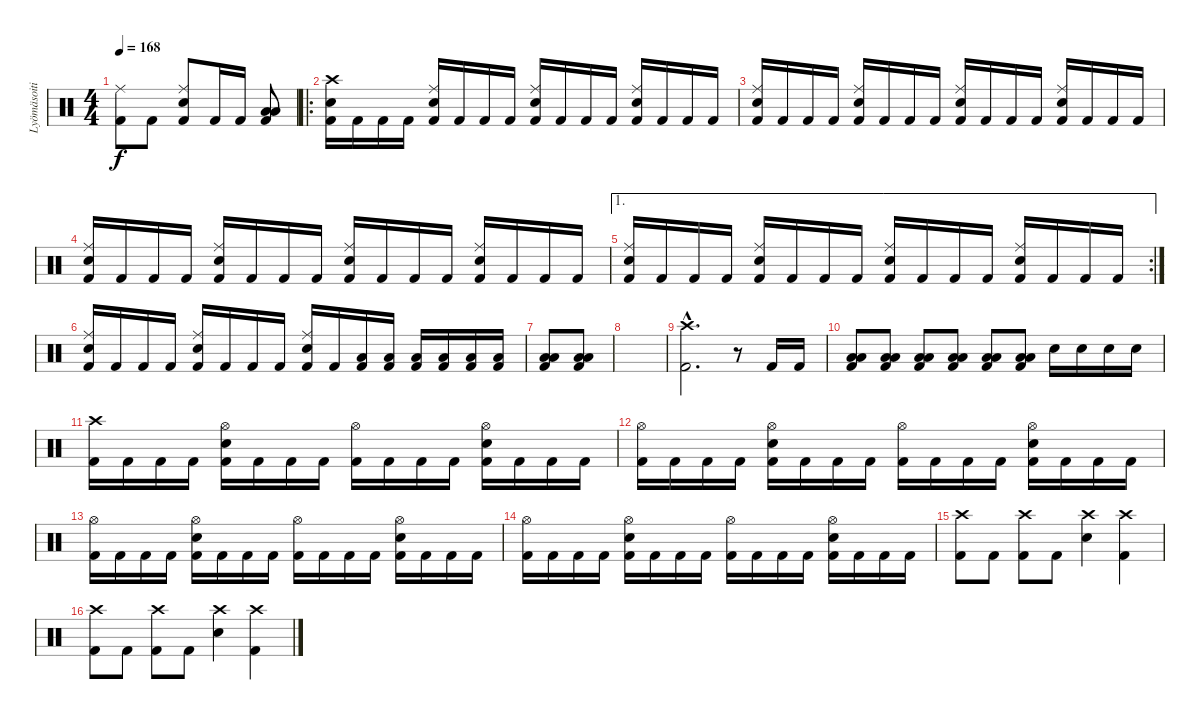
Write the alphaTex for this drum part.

\track ("Lyömäsoitin" "Lyömäsoiti") {instrument percussion}
\staff {score}
\articulation defaults
\ts (4 4)
\tempo 168
\clef neutral
\ks c
("Kick (hit) 2" "Ride (middle)").8{dy f} "Kick (hit) 2".8 ("Kick (hit) 2" "Electric Snare (hit)" "Ride (middle)").8 "Kick (hit) 2".16 "Kick (hit) 2".16 ("Kick (hit) 2" "Low Floor Tom (hit)" "Low Tom (hit)").8 |
\ro
("Kick (hit) 2" "Electric Snare (hit)" "Crash high (hit)").16 "Kick (hit) 2".16 "Kick (hit) 2".16 "Kick (hit) 2".16 ("Kick (hit) 2" "Electric Snare (hit)" "Ride (middle)").16 "Kick (hit) 2".16 "Kick (hit) 2".16 "Kick (hit) 2".16 ("Kick (hit) 2" "Electric Snare (hit)" "Ride (middle)").16 "Kick (hit) 2".16 "Kick (hit) 2".16 "Kick (hit) 2".16 ("Kick (hit) 2" "Electric Snare (hit)" "Ride (middle)").16 "Kick (hit) 2".16 "Kick (hit) 2".16 "Kick (hit) 2".16 |
("Kick (hit) 2" "Electric Snare (hit)" "Ride (middle)").16 "Kick (hit) 2".16 "Kick (hit) 2".16 "Kick (hit) 2".16 ("Kick (hit) 2" "Electric Snare (hit)" "Ride (middle)").16 "Kick (hit) 2".16 "Kick (hit) 2".16 "Kick (hit) 2".16 ("Kick (hit) 2" "Electric Snare (hit)" "Ride (middle)").16 "Kick (hit) 2".16 "Kick (hit) 2".16 "Kick (hit) 2".16 ("Kick (hit) 2" "Electric Snare (hit)" "Ride (middle)").16 "Kick (hit) 2".16 "Kick (hit) 2".16 "Kick (hit) 2".16 |
("Kick (hit) 2" "Electric Snare (hit)" "Ride (middle)").16 "Kick (hit) 2".16 "Kick (hit) 2".16 "Kick (hit) 2".16 ("Kick (hit) 2" "Electric Snare (hit)" "Ride (middle)").16 "Kick (hit) 2".16 "Kick (hit) 2".16 "Kick (hit) 2".16 ("Kick (hit) 2" "Electric Snare (hit)" "Ride (middle)").16 "Kick (hit) 2".16 "Kick (hit) 2".16 "Kick (hit) 2".16 ("Kick (hit) 2" "Electric Snare (hit)" "Ride (middle)").16 "Kick (hit) 2".16 "Kick (hit) 2".16 "Kick (hit) 2".16 |
\ae 1
\rc 2
("Kick (hit) 2" "Electric Snare (hit)" "Ride (middle)").16 "Kick (hit) 2".16 "Kick (hit) 2".16 "Kick (hit) 2".16 ("Kick (hit) 2" "Electric Snare (hit)" "Ride (middle)").16 "Kick (hit) 2".16 "Kick (hit) 2".16 "Kick (hit) 2".16 ("Kick (hit) 2" "Electric Snare (hit)" "Ride (middle)").16 "Kick (hit) 2".16 "Kick (hit) 2".16 "Kick (hit) 2".16 ("Kick (hit) 2" "Electric Snare (hit)" "Ride (middle)").16 "Kick (hit) 2".16 "Kick (hit) 2".16 "Kick (hit) 2".16 |
("Kick (hit) 2" "Electric Snare (hit)" "Ride (middle)").16 "Kick (hit) 2".16 "Kick (hit) 2".16 "Kick (hit) 2".16 ("Kick (hit) 2" "Electric Snare (hit)" "Ride (middle)").16 "Kick (hit) 2".16 "Kick (hit) 2".16 "Kick (hit) 2".16 ("Kick (hit) 2" "Electric Snare (hit)" "Ride (middle)").16 "Kick (hit) 2".16 ("Kick (hit) 2" "Low Tom (hit)").16 ("Kick (hit) 2" "Low Tom (hit)").16 ("Kick (hit) 2" "Low Tom (hit)").16 ("Kick (hit) 2" "Low Tom (hit)").16 ("Kick (hit) 2" "Low Tom (hit)").16 ("Kick (hit) 2" "Low Tom (hit)").16 |
("Kick (hit) 2" "Low Floor Tom (hit)" "Low Tom (hit)").8 ("Kick (hit) 2" "Low Floor Tom (hit)" "Low Tom (hit)").8 |
|
("Kick (hit) 2"{hac} "Crash high (hit)"{hac}).2{d} r.8 "Kick (hit) 2".16 "Kick (hit) 2".16 |
("Kick (hit) 2" "Low Floor Tom (hit)" "Low Tom (hit)").8 ("Kick (hit) 2" "Low Floor Tom (hit)" "Low Tom (hit)").8 ("Kick (hit) 2" "Low Floor Tom (hit)" "Low Tom (hit)").8 ("Kick (hit) 2" "Low Floor Tom (hit)" "Low Tom (hit)").8 ("Kick (hit) 2" "Low Floor Tom (hit)" "Low Tom (hit)").8 ("Kick (hit) 2" "Low Floor Tom (hit)" "Low Tom (hit)").8 "Electric Snare (hit)".16 "Electric Snare (hit)".16 "Electric Snare (hit)".16 "Electric Snare (hit)".16 |
("Kick (hit) 2" "Crash high (hit)").16 "Kick (hit) 2".16 "Kick (hit) 2".16 "Kick (hit) 2".16 ("Kick (hit) 2" "Electric Snare (hit)" "Hi-Hat (open)").16 "Kick (hit) 2".16 "Kick (hit) 2".16 "Kick (hit) 2".16 ("Kick (hit) 2" "Hi-Hat (open)").16 "Kick (hit) 2".16 "Kick (hit) 2".16 "Kick (hit) 2".16 ("Kick (hit) 2" "Electric Snare (hit)" "Hi-Hat (open)").16 "Kick (hit) 2".16 "Kick (hit) 2".16 "Kick (hit) 2".16 |
("Kick (hit) 2" "Hi-Hat (open)").16 "Kick (hit) 2".16 "Kick (hit) 2".16 "Kick (hit) 2".16 ("Kick (hit) 2" "Electric Snare (hit)" "Hi-Hat (open)").16 "Kick (hit) 2".16 "Kick (hit) 2".16 "Kick (hit) 2".16 ("Kick (hit) 2" "Hi-Hat (open)").16 "Kick (hit) 2".16 "Kick (hit) 2".16 "Kick (hit) 2".16 ("Kick (hit) 2" "Electric Snare (hit)" "Hi-Hat (open)").16 "Kick (hit) 2".16 "Kick (hit) 2".16 "Kick (hit) 2".16 |
("Kick (hit) 2" "Hi-Hat (open)").16 "Kick (hit) 2".16 "Kick (hit) 2".16 "Kick (hit) 2".16 ("Kick (hit) 2" "Electric Snare (hit)" "Hi-Hat (open)").16 "Kick (hit) 2".16 "Kick (hit) 2".16 "Kick (hit) 2".16 ("Kick (hit) 2" "Hi-Hat (open)").16 "Kick (hit) 2".16 "Kick (hit) 2".16 "Kick (hit) 2".16 ("Kick (hit) 2" "Electric Snare (hit)" "Hi-Hat (open)").16 "Kick (hit) 2".16 "Kick (hit) 2".16 "Kick (hit) 2".16 |
("Kick (hit) 2" "Hi-Hat (open)").16 "Kick (hit) 2".16 "Kick (hit) 2".16 "Kick (hit) 2".16 ("Kick (hit) 2" "Electric Snare (hit)" "Hi-Hat (open)").16 "Kick (hit) 2".16 "Kick (hit) 2".16 "Kick (hit) 2".16 ("Kick (hit) 2" "Hi-Hat (open)").16 "Kick (hit) 2".16 "Kick (hit) 2".16 "Kick (hit) 2".16 ("Kick (hit) 2" "Electric Snare (hit)" "Hi-Hat (open)").16 "Kick (hit) 2".16 "Kick (hit) 2".16 "Kick (hit) 2".16 |
("Kick (hit) 2" "Crash high (hit)").8 "Kick (hit) 2".8 ("Kick (hit) 2" "Crash high (hit)").8 "Kick (hit) 2".8 ("Electric Snare (hit)" "Crash high (hit)").4 ("Kick (hit) 2" "Crash high (hit)").4 |
("Kick (hit) 2" "Crash high (hit)").8 "Kick (hit) 2".8 ("Kick (hit) 2" "Crash high (hit)").8 "Kick (hit) 2".8 ("Electric Snare (hit)" "Crash high (hit)").4 ("Kick (hit) 2" "Crash high (hit)").4
